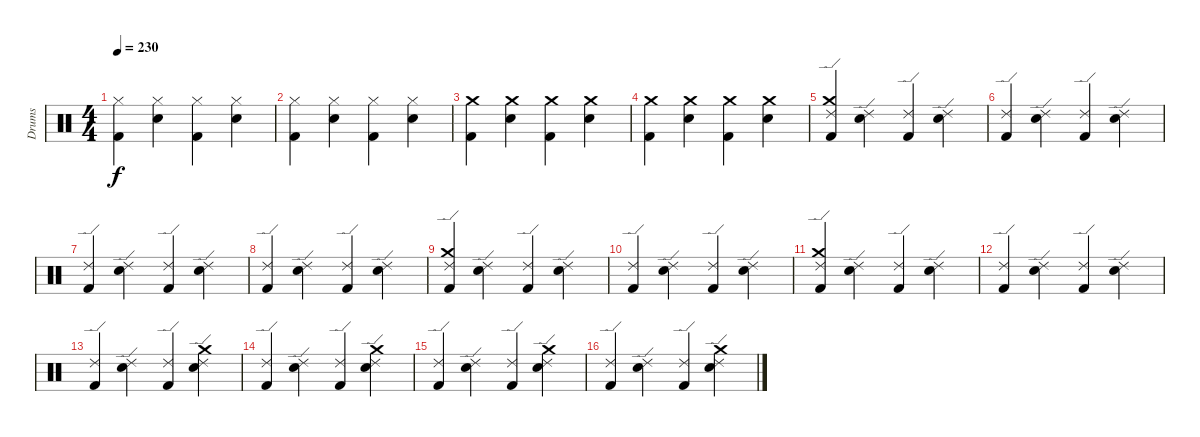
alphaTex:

\track ("Drums" "Drums") {instrument percussion}
\staff {score}
\articulation defaults
\ts (4 4)
\tempo 230
\clef neutral
\ks c
("Hi-Hat (closed)" "Kick (hit) 2").4{dy f} ("Hi-Hat (closed)" "Snare (hit) 2").4 ("Hi-Hat (closed)" "Kick (hit) 2").4 ("Hi-Hat (closed)" "Snare (hit) 2").4 |
("Hi-Hat (closed)" "Kick (hit) 2").4 ("Hi-Hat (closed)" "Snare (hit) 2").4 ("Hi-Hat (closed)" "Kick (hit) 2").4 ("Hi-Hat (closed)" "Snare (hit) 2").4 |
("Crash medium (hit)" "Kick (hit) 2").4 ("Crash medium (hit)" "Snare (hit) 2").4 ("Crash medium (hit)" "Kick (hit) 2").4 ("Crash medium (hit)" "Snare (hit) 2").4 |
("Crash medium (hit)" "Kick (hit) 2").4 ("Crash medium (hit)" "Snare (hit) 2").4 ("Crash medium (hit)" "Kick (hit) 2").4 ("Crash medium (hit)" "Snare (hit) 2").4 |
("Crash medium (hit)" "Ride (edge) 2" "Kick (hit) 2").4 ("Ride (edge) 2" "Snare (hit) 2").4 ("Ride (edge) 2" "Kick (hit) 2").4 ("Ride (edge) 2" "Snare (hit) 2").4 |
("Ride (edge) 2" "Kick (hit) 2").4 ("Ride (edge) 2" "Snare (hit) 2").4 ("Ride (edge) 2" "Kick (hit) 2").4 ("Ride (edge) 2" "Snare (hit) 2").4 |
("Ride (edge) 2" "Kick (hit) 2").4 ("Ride (edge) 2" "Snare (hit) 2").4 ("Ride (edge) 2" "Kick (hit) 2").4 ("Ride (edge) 2" "Snare (hit) 2").4 |
("Ride (edge) 2" "Kick (hit) 2").4 ("Ride (edge) 2" "Snare (hit) 2").4 ("Ride (edge) 2" "Kick (hit) 2").4 ("Ride (edge) 2" "Snare (hit) 2").4 |
("Crash medium (hit)" "Ride (edge) 2" "Kick (hit) 2").4 ("Ride (edge) 2" "Snare (hit) 2").4 ("Ride (edge) 2" "Kick (hit) 2").4 ("Ride (edge) 2" "Snare (hit) 2").4 |
("Ride (edge) 2" "Kick (hit) 2").4 ("Ride (edge) 2" "Snare (hit) 2").4 ("Ride (edge) 2" "Kick (hit) 2").4 ("Ride (edge) 2" "Snare (hit) 2").4 |
("Crash medium (hit)" "Ride (edge) 2" "Kick (hit) 2").4 ("Ride (edge) 2" "Snare (hit) 2").4 ("Ride (edge) 2" "Kick (hit) 2").4 ("Ride (edge) 2" "Snare (hit) 2").4 |
("Ride (edge) 2" "Kick (hit) 2").4 ("Ride (edge) 2" "Snare (hit) 2").4 ("Ride (edge) 2" "Kick (hit) 2").4 ("Ride (edge) 2" "Snare (hit) 2").4 |
("Kick (hit) 2" "Ride (edge) 2").4 ("Snare (hit) 2" "Ride (edge) 2").4 ("Kick (hit) 2" "Ride (edge) 2").4 ("Crash medium (hit)" "Snare (hit) 2" "Ride (edge) 2").4 |
("Kick (hit) 2" "Ride (edge) 2").4 ("Snare (hit) 2" "Ride (edge) 2").4 ("Kick (hit) 2" "Ride (edge) 2").4 ("Crash medium (hit)" "Snare (hit) 2" "Ride (edge) 2").4 |
("Kick (hit) 2" "Ride (edge) 2").4 ("Snare (hit) 2" "Ride (edge) 2").4 ("Kick (hit) 2" "Ride (edge) 2").4 ("Crash medium (hit)" "Snare (hit) 2" "Ride (edge) 2").4 |
("Kick (hit) 2" "Ride (edge) 2").4 ("Snare (hit) 2" "Ride (edge) 2").4 ("Kick (hit) 2" "Ride (edge) 2").4 ("Crash medium (hit)" "Snare (hit) 2" "Ride (edge) 2").4
